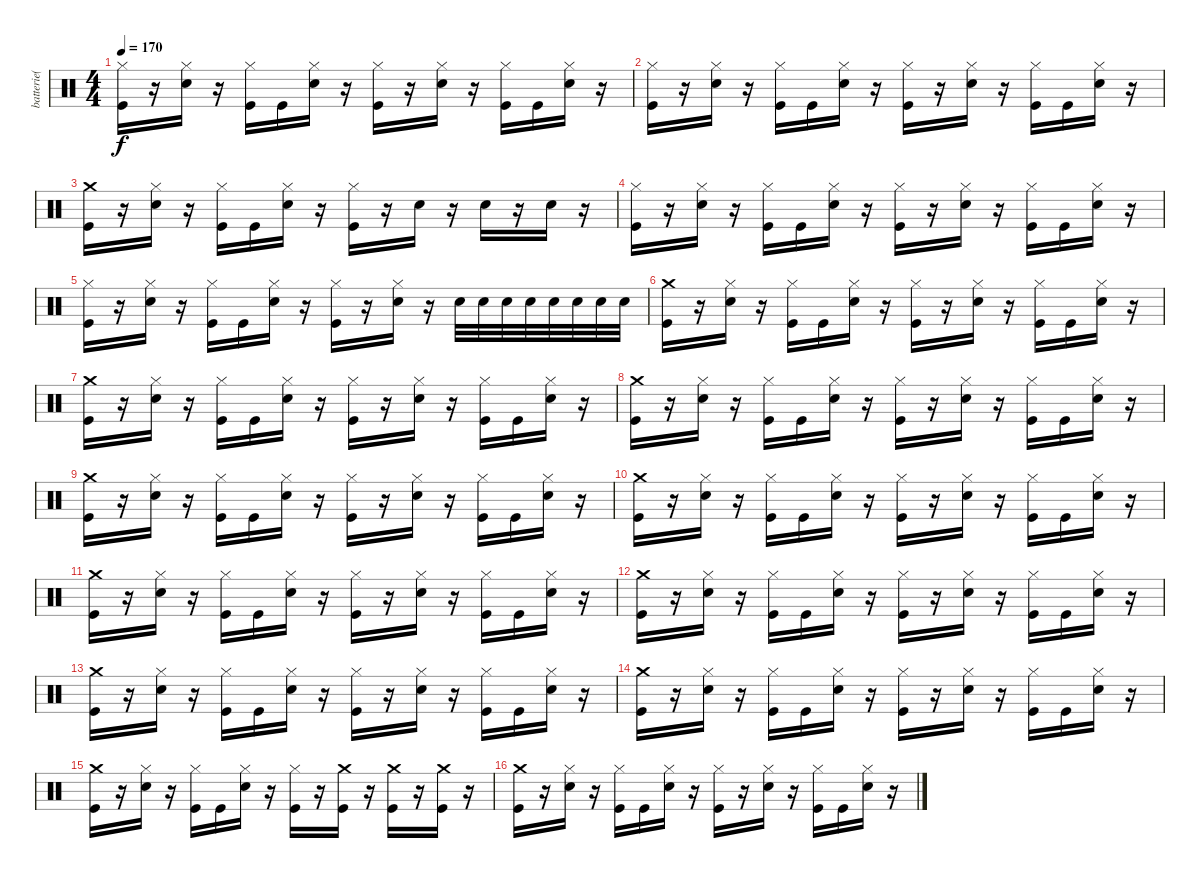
\track ("batterie( Yureesh )" "batterie( ") {instrument percussion}
\staff {score}
\articulation defaults
\ts (4 4)
\tempo 170
\clef neutral
\ks c
("Hi-Hat (closed)" "Kick (hit)").16{dy f} r.16 ("Hi-Hat (closed)" "Snare (hit) 2").16 r.16 ("Hi-Hat (closed)" "Kick (hit)").16 "Kick (hit)".16 ("Hi-Hat (closed)" "Snare (hit) 2").16 r.16 ("Hi-Hat (closed)" "Kick (hit)").16 r.16 ("Hi-Hat (closed)" "Snare (hit) 2").16 r.16 ("Hi-Hat (closed)" "Kick (hit)").16 "Kick (hit)".16 ("Hi-Hat (closed)" "Snare (hit) 2").16 r.16 |
("Hi-Hat (closed)" "Kick (hit)").16 r.16 ("Hi-Hat (closed)" "Snare (hit) 2").16 r.16 ("Hi-Hat (closed)" "Kick (hit)").16 "Kick (hit)".16 ("Hi-Hat (closed)" "Snare (hit) 2").16 r.16 ("Hi-Hat (closed)" "Kick (hit)").16 r.16 ("Hi-Hat (closed)" "Snare (hit) 2").16 r.16 ("Hi-Hat (closed)" "Kick (hit)").16 "Kick (hit)".16 ("Hi-Hat (closed)" "Snare (hit) 2").16 r.16 |
("Crash medium (hit)" "Kick (hit)").16 r.16 ("Hi-Hat (closed)" "Snare (hit) 2").16 r.16 ("Hi-Hat (closed)" "Kick (hit)").16 "Kick (hit)".16 ("Hi-Hat (closed)" "Snare (hit) 2").16 r.16 ("Hi-Hat (closed)" "Kick (hit)").16 r.16 "Snare (hit) 2".16 r.16 "Snare (hit) 2".16 r.16 "Snare (hit) 2".16 r.16 |
("Hi-Hat (closed)" "Kick (hit)").16 r.16 ("Hi-Hat (closed)" "Snare (hit) 2").16 r.16 ("Hi-Hat (closed)" "Kick (hit)").16 "Kick (hit)".16 ("Hi-Hat (closed)" "Snare (hit) 2").16 r.16 ("Hi-Hat (closed)" "Kick (hit)").16 r.16 ("Hi-Hat (closed)" "Snare (hit) 2").16 r.16 ("Hi-Hat (closed)" "Kick (hit)").16 "Kick (hit)".16 ("Hi-Hat (closed)" "Snare (hit) 2").16 r.16 |
("Hi-Hat (closed)" "Kick (hit)").16 r.16 ("Hi-Hat (closed)" "Snare (hit) 2").16 r.16 ("Hi-Hat (closed)" "Kick (hit)").16 "Kick (hit)".16 ("Hi-Hat (closed)" "Snare (hit) 2").16 r.16 ("Hi-Hat (closed)" "Kick (hit)").16 r.16 ("Hi-Hat (closed)" "Snare (hit) 2").16 r.16 "Snare (hit) 2".32 "Snare (hit) 2".32 "Snare (hit) 2".32 "Snare (hit) 2".32 "Snare (hit) 2".32 "Snare (hit) 2".32 "Snare (hit) 2".32 "Snare (hit) 2".32 |
("Crash medium (hit)" "Kick (hit)").16 r.16 ("Hi-Hat (closed)" "Snare (hit) 2").16 r.16 ("Hi-Hat (closed)" "Kick (hit)").16 "Kick (hit)".16 ("Hi-Hat (closed)" "Snare (hit) 2").16 r.16 ("Hi-Hat (closed)" "Kick (hit)").16 r.16 ("Hi-Hat (closed)" "Snare (hit) 2").16 r.16 ("Hi-Hat (closed)" "Kick (hit)").16 "Kick (hit)".16 ("Hi-Hat (closed)" "Snare (hit) 2").16 r.16 |
("Crash medium (hit)" "Kick (hit)").16 r.16 ("Hi-Hat (closed)" "Snare (hit) 2").16 r.16 ("Hi-Hat (closed)" "Kick (hit)").16 "Kick (hit)".16 ("Hi-Hat (closed)" "Snare (hit) 2").16 r.16 ("Hi-Hat (closed)" "Kick (hit)").16 r.16 ("Hi-Hat (closed)" "Snare (hit) 2").16 r.16 ("Hi-Hat (closed)" "Kick (hit)").16 "Kick (hit)".16 ("Hi-Hat (closed)" "Snare (hit) 2").16 r.16 |
("Crash medium (hit)" "Kick (hit)").16 r.16 ("Hi-Hat (closed)" "Snare (hit) 2").16 r.16 ("Hi-Hat (closed)" "Kick (hit)").16 "Kick (hit)".16 ("Hi-Hat (closed)" "Snare (hit) 2").16 r.16 ("Hi-Hat (closed)" "Kick (hit)").16 r.16 ("Hi-Hat (closed)" "Snare (hit) 2").16 r.16 ("Hi-Hat (closed)" "Kick (hit)").16 "Kick (hit)".16 ("Hi-Hat (closed)" "Snare (hit) 2").16 r.16 |
("Crash medium (hit)" "Kick (hit)").16 r.16 ("Hi-Hat (closed)" "Snare (hit) 2").16 r.16 ("Hi-Hat (closed)" "Kick (hit)").16 "Kick (hit)".16 ("Hi-Hat (closed)" "Snare (hit) 2").16 r.16 ("Hi-Hat (closed)" "Kick (hit)").16 r.16 ("Hi-Hat (closed)" "Snare (hit) 2").16 r.16 ("Hi-Hat (closed)" "Kick (hit)").16 "Kick (hit)".16 ("Hi-Hat (closed)" "Snare (hit) 2").16 r.16 |
("Crash medium (hit)" "Kick (hit)").16 r.16 ("Hi-Hat (closed)" "Snare (hit) 2").16 r.16 ("Hi-Hat (closed)" "Kick (hit)").16 "Kick (hit)".16 ("Hi-Hat (closed)" "Snare (hit) 2").16 r.16 ("Hi-Hat (closed)" "Kick (hit)").16 r.16 ("Hi-Hat (closed)" "Snare (hit) 2").16 r.16 ("Hi-Hat (closed)" "Kick (hit)").16 "Kick (hit)".16 ("Hi-Hat (closed)" "Snare (hit) 2").16 r.16 |
("Crash medium (hit)" "Kick (hit)").16 r.16 ("Hi-Hat (closed)" "Snare (hit) 2").16 r.16 ("Hi-Hat (closed)" "Kick (hit)").16 "Kick (hit)".16 ("Hi-Hat (closed)" "Snare (hit) 2").16 r.16 ("Hi-Hat (closed)" "Kick (hit)").16 r.16 ("Hi-Hat (closed)" "Snare (hit) 2").16 r.16 ("Hi-Hat (closed)" "Kick (hit)").16 "Kick (hit)".16 ("Hi-Hat (closed)" "Snare (hit) 2").16 r.16 |
("Crash medium (hit)" "Kick (hit)").16 r.16 ("Hi-Hat (closed)" "Snare (hit) 2").16 r.16 ("Hi-Hat (closed)" "Kick (hit)").16 "Kick (hit)".16 ("Hi-Hat (closed)" "Snare (hit) 2").16 r.16 ("Hi-Hat (closed)" "Kick (hit)").16 r.16 ("Hi-Hat (closed)" "Snare (hit) 2").16 r.16 ("Hi-Hat (closed)" "Kick (hit)").16 "Kick (hit)".16 ("Hi-Hat (closed)" "Snare (hit) 2").16 r.16 |
("Crash medium (hit)" "Kick (hit)").16 r.16 ("Hi-Hat (closed)" "Snare (hit) 2").16 r.16 ("Hi-Hat (closed)" "Kick (hit)").16 "Kick (hit)".16 ("Hi-Hat (closed)" "Snare (hit) 2").16 r.16 ("Hi-Hat (closed)" "Kick (hit)").16 r.16 ("Hi-Hat (closed)" "Snare (hit) 2").16 r.16 ("Hi-Hat (closed)" "Kick (hit)").16 "Kick (hit)".16 ("Hi-Hat (closed)" "Snare (hit) 2").16 r.16 |
("Crash medium (hit)" "Kick (hit)").16 r.16 ("Hi-Hat (closed)" "Snare (hit) 2").16 r.16 ("Hi-Hat (closed)" "Kick (hit)").16 "Kick (hit)".16 ("Hi-Hat (closed)" "Snare (hit) 2").16 r.16 ("Hi-Hat (closed)" "Kick (hit)").16 r.16 ("Hi-Hat (closed)" "Snare (hit) 2").16 r.16 ("Hi-Hat (closed)" "Kick (hit)").16 "Kick (hit)".16 ("Hi-Hat (closed)" "Snare (hit) 2").16 r.16 |
("Crash medium (hit)" "Kick (hit)").16 r.16 ("Hi-Hat (closed)" "Snare (hit) 2").16 r.16 ("Hi-Hat (closed)" "Kick (hit)").16 "Kick (hit)".16 ("Hi-Hat (closed)" "Snare (hit) 2").16 r.16 ("Hi-Hat (closed)" "Kick (hit)").16 r.16 ("Crash medium (hit)" "Kick (hit)").16 r.16 ("Crash medium (hit)" "Kick (hit)").16 r.16 ("Crash medium (hit)" "Kick (hit)").16 r.16 |
("Crash medium (hit)" "Kick (hit)").16 r.16 ("Hi-Hat (closed)" "Snare (hit) 2").16 r.16 ("Hi-Hat (closed)" "Kick (hit)").16 "Kick (hit)".16 ("Hi-Hat (closed)" "Snare (hit) 2").16 r.16 ("Hi-Hat (closed)" "Kick (hit)").16 r.16 ("Hi-Hat (closed)" "Snare (hit) 2").16 r.16 ("Hi-Hat (closed)" "Kick (hit)").16 "Kick (hit)".16 ("Hi-Hat (closed)" "Snare (hit) 2").16 r.16
